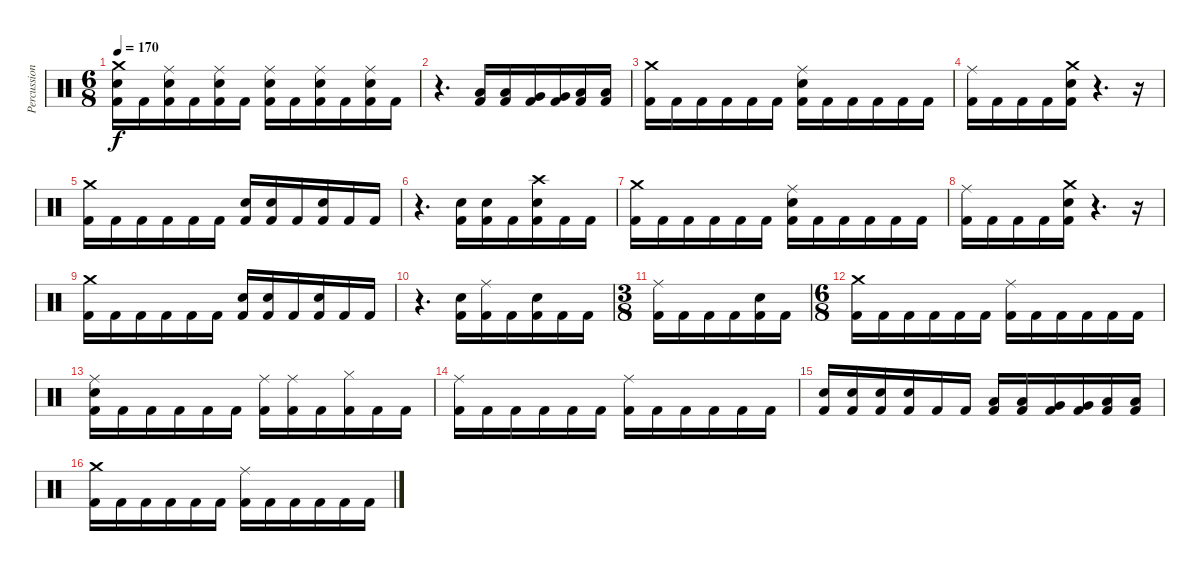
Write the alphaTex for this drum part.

\track ("Percussions" "Percussion") {instrument percussion}
\staff {score}
\articulation defaults
\ts (6 8)
\tempo 170
\clef neutral
\ks c
("Crash medium (hit)" "Electric Snare (hit)" "Kick (hit) 2").16{dy f} "Kick (hit) 2".16 ("Ride (middle)" "Electric Snare (hit)" "Kick (hit) 2").16 "Kick (hit) 2".16 ("Ride (middle)" "Electric Snare (hit)" "Kick (hit) 2").16 "Kick (hit) 2".16 ("Ride (middle)" "Electric Snare (hit)" "Kick (hit) 2").16 "Kick (hit) 2".16 ("Ride (middle)" "Electric Snare (hit)" "Kick (hit) 2").16 "Kick (hit) 2".16 ("Ride (middle)" "Electric Snare (hit)" "Kick (hit) 2").16 "Kick (hit) 2".16 |
r.4{d} ("Low Tom (hit)" "Kick (hit) 2").16 ("Low Tom (hit)" "Kick (hit) 2").16 ("Very Low Tom (hit)" "Kick (hit) 2").16 ("Very Low Tom (hit)" "Kick (hit) 2").16 ("Low Floor Tom (hit)" "Kick (hit) 2").16 ("Low Floor Tom (hit)" "Kick (hit) 2").16 |
("Crash medium (hit)" "Kick (hit) 2").16 "Kick (hit) 2".16 "Kick (hit) 2".16 "Kick (hit) 2".16 "Kick (hit) 2".16 "Kick (hit) 2".16 ("Ride (middle)" "Electric Snare (hit)" "Kick (hit) 2").16 "Kick (hit) 2".16 "Kick (hit) 2".16 "Kick (hit) 2".16 "Kick (hit) 2".16 "Kick (hit) 2".16 |
("Ride (middle)" "Kick (hit) 2").16 "Kick (hit) 2".16 "Kick (hit) 2".16 "Kick (hit) 2".16 ("Crash medium (hit)" "Electric Snare (hit)" "Kick (hit) 2").16 r.4{d} r.16 |
("Crash medium (hit)" "Kick (hit) 2").16 "Kick (hit) 2".16 "Kick (hit) 2".16 "Kick (hit) 2".16 "Kick (hit) 2".16 "Kick (hit) 2".16 ("Electric Snare (hit)" "Kick (hit) 2").16 ("Electric Snare (hit)" "Kick (hit) 2").16 "Kick (hit) 2".16 ("Electric Snare (hit)" "Kick (hit) 2").16 "Kick (hit) 2".16 "Kick (hit) 2".16 |
r.4{d} ("Electric Snare (hit)" "Kick (hit) 2").16 ("Electric Snare (hit)" "Kick (hit) 2").16 "Kick (hit) 2".16 ("Crash high (hit)" "Electric Snare (hit)" "Kick (hit) 2").16 "Kick (hit) 2".16 "Kick (hit) 2".16 |
("Crash medium (hit)" "Kick (hit) 2").16 "Kick (hit) 2".16 "Kick (hit) 2".16 "Kick (hit) 2".16 "Kick (hit) 2".16 "Kick (hit) 2".16 ("Ride (middle)" "Electric Snare (hit)" "Kick (hit) 2").16 "Kick (hit) 2".16 "Kick (hit) 2".16 "Kick (hit) 2".16 "Kick (hit) 2".16 "Kick (hit) 2".16 |
("Ride (middle)" "Kick (hit) 2").16 "Kick (hit) 2".16 "Kick (hit) 2".16 "Kick (hit) 2".16 ("Crash medium (hit)" "Electric Snare (hit)" "Kick (hit) 2").16 r.4{d} r.16 |
("Crash medium (hit)" "Kick (hit) 2").16 "Kick (hit) 2".16 "Kick (hit) 2".16 "Kick (hit) 2".16 "Kick (hit) 2".16 "Kick (hit) 2".16 ("Electric Snare (hit)" "Kick (hit) 2").16 ("Electric Snare (hit)" "Kick (hit) 2").16 "Kick (hit) 2".16 ("Electric Snare (hit)" "Kick (hit) 2").16 "Kick (hit) 2".16 "Kick (hit) 2".16 |
r.4{d} ("Electric Snare (hit)" "Kick (hit) 2").16 ("Ride (middle)" "Kick (hit) 2").16 "Kick (hit) 2".16 ("Electric Snare (hit)" "Kick (hit) 2").16 "Kick (hit) 2".16 "Kick (hit) 2".16 |
\ts (3 8)
("Ride (middle)" "Kick (hit) 2").16 "Kick (hit) 2".16 "Kick (hit) 2".16 "Kick (hit) 2".16 ("Electric Snare (hit)" "Kick (hit) 2").16 "Kick (hit) 2".16 |
\ts (6 8)
("Crash medium (hit)" "Kick (hit) 2").16 "Kick (hit) 2".16 "Kick (hit) 2".16 "Kick (hit) 2".16 "Kick (hit) 2".16 "Kick (hit) 2".16 ("Ride (middle)" "Kick (hit) 2").16 "Kick (hit) 2".16 "Kick (hit) 2".16 "Kick (hit) 2".16 "Kick (hit) 2".16 "Kick (hit) 2".16 |
("Ride (middle)" "Electric Snare (hit)" "Kick (hit) 2").16 "Kick (hit) 2".16 "Kick (hit) 2".16 "Kick (hit) 2".16 "Kick (hit) 2".16 "Kick (hit) 2".16 ("Ride (middle)" "Kick (hit) 2").16 ("Ride (middle)" "Kick (hit) 2").16 "Kick (hit) 2".16 ("Hi-Hat (closed)" "Kick (hit) 2").16 "Kick (hit) 2".16 "Kick (hit) 2".16 |
("Ride (middle)" "Kick (hit) 2").16 "Kick (hit) 2".16 "Kick (hit) 2".16 "Kick (hit) 2".16 "Kick (hit) 2".16 "Kick (hit) 2".16 ("Ride (middle)" "Kick (hit) 2").16 "Kick (hit) 2".16 "Kick (hit) 2".16 "Kick (hit) 2".16 "Kick (hit) 2".16 "Kick (hit) 2".16 |
("Electric Snare (hit)" "Kick (hit) 2").16 ("Electric Snare (hit)" "Kick (hit) 2").16 ("Electric Snare (hit)" "Kick (hit) 2").16 ("Electric Snare (hit)" "Kick (hit) 2").16 "Kick (hit) 2".16 "Kick (hit) 2".16 ("Low Tom (hit)" "Kick (hit) 2").16 ("Low Tom (hit)" "Kick (hit) 2").16 ("Very Low Tom (hit)" "Kick (hit) 2").16 ("Very Low Tom (hit)" "Kick (hit) 2").16 ("Low Floor Tom (hit)" "Kick (hit) 2").16 ("Low Floor Tom (hit)" "Kick (hit) 2").16 |
("Crash medium (hit)" "Kick (hit) 2").16 "Kick (hit) 2".16 "Kick (hit) 2".16 "Kick (hit) 2".16 "Kick (hit) 2".16 "Kick (hit) 2".16 ("Ride (middle)" "Kick (hit) 2").16 "Kick (hit) 2".16 "Kick (hit) 2".16 "Kick (hit) 2".16 "Kick (hit) 2".16 "Kick (hit) 2".16
